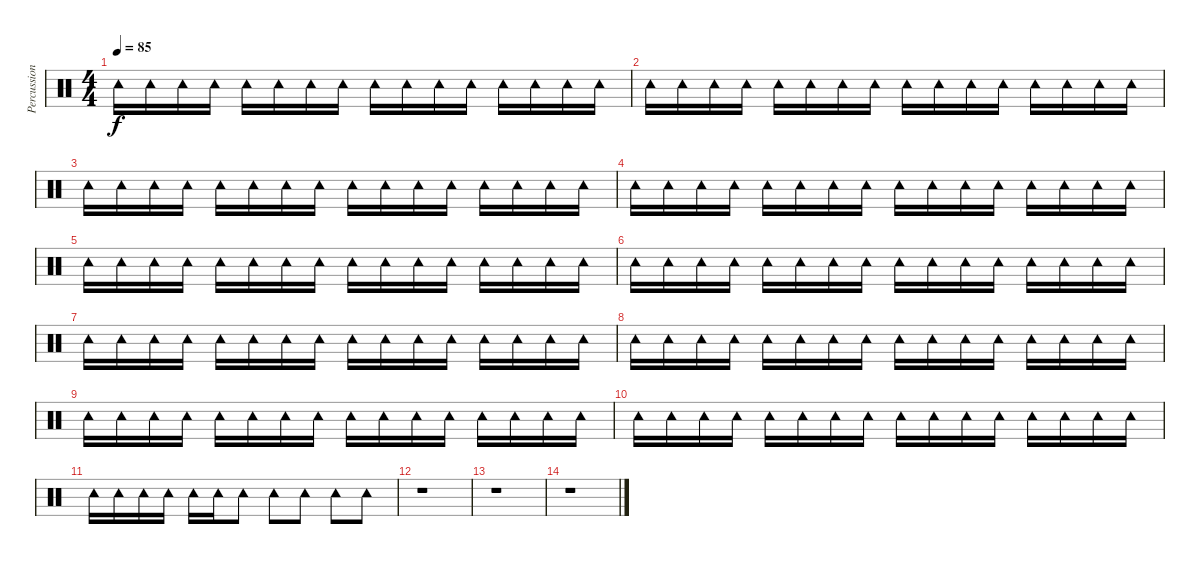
\track ("Percussions" "Percussion") {instrument percussion}
\staff {score}
\articulation defaults
\ts (4 4)
\tempo 85
\clef neutral
\ks c "Tambourine (hit)".16{dy f} "Tambourine (hit)".16 "Tambourine (hit)".16 "Tambourine (hit)".16 "Tambourine (hit)".16 "Tambourine (hit)".16 "Tambourine (hit)".16 "Tambourine (hit)".16 "Tambourine (hit)".16 "Tambourine (hit)".16 "Tambourine (hit)".16 "Tambourine (hit)".16 "Tambourine (hit)".16 "Tambourine (hit)".16 "Tambourine (hit)".16 "Tambourine (hit)".16
|
"Tambourine (hit)".16 "Tambourine (hit)".16 "Tambourine (hit)".16 "Tambourine (hit)".16 "Tambourine (hit)".16 "Tambourine (hit)".16 "Tambourine (hit)".16 "Tambourine (hit)".16 "Tambourine (hit)".16 "Tambourine (hit)".16 "Tambourine (hit)".16 "Tambourine (hit)".16 "Tambourine (hit)".16 "Tambourine (hit)".16 "Tambourine (hit)".16 "Tambourine (hit)".16 |
"Tambourine (hit)".16 "Tambourine (hit)".16 "Tambourine (hit)".16 "Tambourine (hit)".16 "Tambourine (hit)".16 "Tambourine (hit)".16 "Tambourine (hit)".16 "Tambourine (hit)".16 "Tambourine (hit)".16 "Tambourine (hit)".16 "Tambourine (hit)".16 "Tambourine (hit)".16 "Tambourine (hit)".16 "Tambourine (hit)".16 "Tambourine (hit)".16 "Tambourine (hit)".16 |
"Tambourine (hit)".16 "Tambourine (hit)".16 "Tambourine (hit)".16 "Tambourine (hit)".16 "Tambourine (hit)".16 "Tambourine (hit)".16 "Tambourine (hit)".16 "Tambourine (hit)".16 "Tambourine (hit)".16 "Tambourine (hit)".16 "Tambourine (hit)".16 "Tambourine (hit)".16 "Tambourine (hit)".16 "Tambourine (hit)".16 "Tambourine (hit)".16 "Tambourine (hit)".16 |
"Tambourine (hit)".16 "Tambourine (hit)".16 "Tambourine (hit)".16 "Tambourine (hit)".16 "Tambourine (hit)".16 "Tambourine (hit)".16 "Tambourine (hit)".16 "Tambourine (hit)".16 "Tambourine (hit)".16 "Tambourine (hit)".16 "Tambourine (hit)".16 "Tambourine (hit)".16 "Tambourine (hit)".16 "Tambourine (hit)".16 "Tambourine (hit)".16 "Tambourine (hit)".16 |
"Tambourine (hit)".16 "Tambourine (hit)".16 "Tambourine (hit)".16 "Tambourine (hit)".16 "Tambourine (hit)".16 "Tambourine (hit)".16 "Tambourine (hit)".16 "Tambourine (hit)".16 "Tambourine (hit)".16 "Tambourine (hit)".16 "Tambourine (hit)".16 "Tambourine (hit)".16 "Tambourine (hit)".16 "Tambourine (hit)".16 "Tambourine (hit)".16 "Tambourine (hit)".16 |
"Tambourine (hit)".16 "Tambourine (hit)".16 "Tambourine (hit)".16 "Tambourine (hit)".16 "Tambourine (hit)".16 "Tambourine (hit)".16 "Tambourine (hit)".16 "Tambourine (hit)".16 "Tambourine (hit)".16 "Tambourine (hit)".16 "Tambourine (hit)".16 "Tambourine (hit)".16 "Tambourine (hit)".16 "Tambourine (hit)".16 "Tambourine (hit)".16 "Tambourine (hit)".16 |
"Tambourine (hit)".16 "Tambourine (hit)".16 "Tambourine (hit)".16 "Tambourine (hit)".16 "Tambourine (hit)".16 "Tambourine (hit)".16 "Tambourine (hit)".16 "Tambourine (hit)".16 "Tambourine (hit)".16 "Tambourine (hit)".16 "Tambourine (hit)".16 "Tambourine (hit)".16 "Tambourine (hit)".16 "Tambourine (hit)".16 "Tambourine (hit)".16 "Tambourine (hit)".16 |
"Tambourine (hit)".16 "Tambourine (hit)".16 "Tambourine (hit)".16 "Tambourine (hit)".16 "Tambourine (hit)".16 "Tambourine (hit)".16 "Tambourine (hit)".16 "Tambourine (hit)".16 "Tambourine (hit)".16 "Tambourine (hit)".16 "Tambourine (hit)".16 "Tambourine (hit)".16 "Tambourine (hit)".16 "Tambourine (hit)".16 "Tambourine (hit)".16 "Tambourine (hit)".16 |
"Tambourine (hit)".16 "Tambourine (hit)".16 "Tambourine (hit)".16 "Tambourine (hit)".16 "Tambourine (hit)".16 "Tambourine (hit)".16 "Tambourine (hit)".16 "Tambourine (hit)".16 "Tambourine (hit)".16 "Tambourine (hit)".16 "Tambourine (hit)".16 "Tambourine (hit)".16 "Tambourine (hit)".16 "Tambourine (hit)".16 "Tambourine (hit)".16 "Tambourine (hit)".16 |
"Tambourine (hit)".16 "Tambourine (hit)".16 "Tambourine (hit)".16 "Tambourine (hit)".16 "Tambourine (hit)".16 "Tambourine (hit)".16 "Tambourine (hit)".8 "Tambourine (hit)".8 "Tambourine (hit)".8 "Tambourine (hit)".8 "Tambourine (hit)".8 |
r.1 |
r.1 |
r.1
